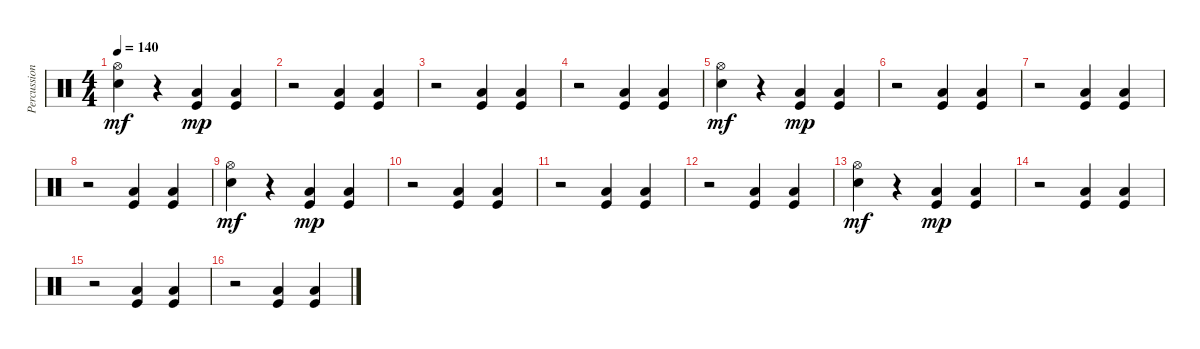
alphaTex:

\track ("Percussion" "Percussion") {instrument percussion}
\staff {score}
\articulation defaults
\ts (4 4)
\tempo 140
\clef neutral
\ks c
("Hi-Hat (open)" "Snare (hit) 2").4{dy mf} r.4 ("Kick (hit)" "Low Tom (hit)").4{dy mp} ("Kick (hit)" "Low Tom (hit)").4 |
r.2 ("Kick (hit)" "Low Tom (hit)").4 ("Kick (hit)" "Low Tom (hit)").4 |
r.2 ("Kick (hit)" "Low Tom (hit)").4 ("Kick (hit)" "Low Tom (hit)").4 |
r.2 ("Kick (hit)" "Low Tom (hit)").4 ("Kick (hit)" "Low Tom (hit)").4 |
("Hi-Hat (open)" "Snare (hit) 2").4{dy mf} r.4 ("Kick (hit)" "Low Tom (hit)").4{dy mp} ("Kick (hit)" "Low Tom (hit)").4 |
r.2 ("Kick (hit)" "Low Tom (hit)").4 ("Kick (hit)" "Low Tom (hit)").4 |
r.2 ("Kick (hit)" "Low Tom (hit)").4 ("Kick (hit)" "Low Tom (hit)").4 |
r.2 ("Kick (hit)" "Low Tom (hit)").4 ("Kick (hit)" "Low Tom (hit)").4 |
("Hi-Hat (open)" "Snare (hit) 2").4{dy mf} r.4 ("Kick (hit)" "Low Tom (hit)").4{dy mp} ("Kick (hit)" "Low Tom (hit)").4 |
r.2 ("Kick (hit)" "Low Tom (hit)").4 ("Kick (hit)" "Low Tom (hit)").4 |
r.2 ("Kick (hit)" "Low Tom (hit)").4 ("Kick (hit)" "Low Tom (hit)").4 |
r.2 ("Kick (hit)" "Low Tom (hit)").4 ("Kick (hit)" "Low Tom (hit)").4 |
("Hi-Hat (open)" "Snare (hit) 2").4{dy mf} r.4 ("Kick (hit)" "Low Tom (hit)").4{dy mp} ("Kick (hit)" "Low Tom (hit)").4 |
r.2 ("Kick (hit)" "Low Tom (hit)").4 ("Kick (hit)" "Low Tom (hit)").4 |
r.2 ("Kick (hit)" "Low Tom (hit)").4 ("Kick (hit)" "Low Tom (hit)").4 |
r.2 ("Kick (hit)" "Low Tom (hit)").4 ("Kick (hit)" "Low Tom (hit)").4
